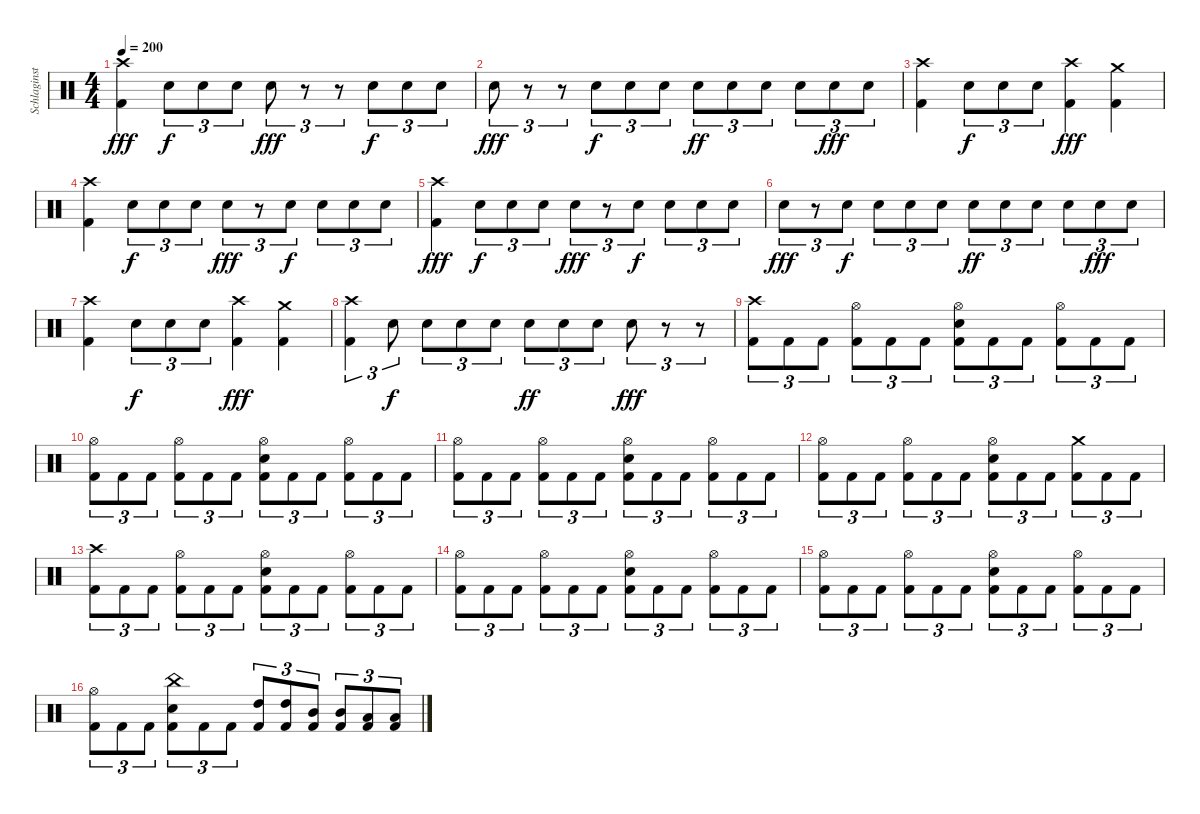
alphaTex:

\track ("Schlaginstrumente - Auswahl" "Schlaginst") {instrument percussion}
\staff {score}
\articulation defaults
\ts (4 4)
\tempo 200
\clef neutral
\ks c
("Crash high (hit)" "Kick (hit) 2").4{dy fff} "Snare (hit) 2".8{tu (3 2) dy f} "Snare (hit) 2".8{tu (3 2)} "Snare (hit) 2".8{tu (3 2)} "Snare (hit) 2".8{tu (3 2) dy fff} r.8{tu (3 2)} r.8{tu (3 2)} "Snare (hit) 2".8{tu (3 2) dy f} "Snare (hit) 2".8{tu (3 2)} "Snare (hit) 2".8{tu (3 2)} |
"Snare (hit) 2".8{tu (3 2) dy fff} r.8{tu (3 2)} r.8{tu (3 2)} "Snare (hit) 2".8{tu (3 2) dy f} "Snare (hit) 2".8{tu (3 2)} "Snare (hit) 2".8{tu (3 2)} "Snare (hit) 2".8{tu (3 2) dy ff} "Snare (hit) 2".8{tu (3 2)} "Snare (hit) 2".8{tu (3 2)} "Snare (hit) 2".8{tu (3 2)} "Snare (hit) 2".8{tu (3 2) dy fff} "Snare (hit) 2".8{tu (3 2)} |
("Crash high (hit)" "Kick (hit) 2").4 "Snare (hit) 2".8{tu (3 2) dy f} "Snare (hit) 2".8{tu (3 2)} "Snare (hit) 2".8{tu (3 2)} ("Crash high (hit)" "Kick (hit) 2").4{dy fff} ("Crash medium (hit)" "Kick (hit) 2").4 |
("Crash high (hit)" "Kick (hit) 2").4 "Snare (hit) 2".8{tu (3 2) dy f} "Snare (hit) 2".8{tu (3 2)} "Snare (hit) 2".8{tu (3 2)} "Snare (hit) 2".8{tu (3 2) dy fff} r.8{tu (3 2)} "Snare (hit) 2".8{tu (3 2) dy f} "Snare (hit) 2".8{tu (3 2)} "Snare (hit) 2".8{tu (3 2)} "Snare (hit) 2".8{tu (3 2)} |
("Crash high (hit)" "Kick (hit) 2").4{dy fff} "Snare (hit) 2".8{tu (3 2) dy f} "Snare (hit) 2".8{tu (3 2)} "Snare (hit) 2".8{tu (3 2)} "Snare (hit) 2".8{tu (3 2) dy fff} r.8{tu (3 2)} "Snare (hit) 2".8{tu (3 2) dy f} "Snare (hit) 2".8{tu (3 2)} "Snare (hit) 2".8{tu (3 2)} "Snare (hit) 2".8{tu (3 2)} |
"Snare (hit) 2".8{tu (3 2) dy fff} r.8{tu (3 2)} "Snare (hit) 2".8{tu (3 2) dy f} "Snare (hit) 2".8{tu (3 2)} "Snare (hit) 2".8{tu (3 2)} "Snare (hit) 2".8{tu (3 2)} "Snare (hit) 2".8{tu (3 2) dy ff} "Snare (hit) 2".8{tu (3 2)} "Snare (hit) 2".8{tu (3 2)} "Snare (hit) 2".8{tu (3 2)} "Snare (hit) 2".8{tu (3 2) dy fff} "Snare (hit) 2".8{tu (3 2)} |
("Crash high (hit)" "Kick (hit) 2").4 "Snare (hit) 2".8{tu (3 2) dy f} "Snare (hit) 2".8{tu (3 2)} "Snare (hit) 2".8{tu (3 2)} ("Crash high (hit)" "Kick (hit) 2").4{dy fff} ("Crash medium (hit)" "Kick (hit) 2").4 |
("Crash high (hit)" "Kick (hit) 2").4{tu (3 2)} "Snare (hit) 2".8{tu (3 2) dy f} "Snare (hit) 2".8{tu (3 2)} "Snare (hit) 2".8{tu (3 2)} "Snare (hit) 2".8{tu (3 2)} "Snare (hit) 2".8{tu (3 2) dy ff} "Snare (hit) 2".8{tu (3 2)} "Snare (hit) 2".8{tu (3 2)} "Snare (hit) 2".8{tu (3 2) dy fff} r.8{tu (3 2)} r.8{tu (3 2)} |
("Crash high (hit)" "Kick (hit) 2").8{tu (3 2)} "Kick (hit) 2".8{tu (3 2)} "Kick (hit) 2".8{tu (3 2)} ("Hi-Hat (open)" "Kick (hit) 2").8{tu (3 2)} "Kick (hit) 2".8{tu (3 2)} "Kick (hit) 2".8{tu (3 2)} ("Hi-Hat (open)" "Snare (hit) 2" "Kick (hit) 2").8{tu (3 2)} "Kick (hit) 2".8{tu (3 2)} "Kick (hit) 2".8{tu (3 2)} ("Hi-Hat (open)" "Kick (hit) 2").8{tu (3 2)} "Kick (hit) 2".8{tu (3 2)} "Kick (hit) 2".8{tu (3 2)} |
("Hi-Hat (open)" "Kick (hit) 2").8{tu (3 2)} "Kick (hit) 2".8{tu (3 2)} "Kick (hit) 2".8{tu (3 2)} ("Hi-Hat (open)" "Kick (hit) 2").8{tu (3 2)} "Kick (hit) 2".8{tu (3 2)} "Kick (hit) 2".8{tu (3 2)} ("Hi-Hat (open)" "Snare (hit) 2" "Kick (hit) 2").8{tu (3 2)} "Kick (hit) 2".8{tu (3 2)} "Kick (hit) 2".8{tu (3 2)} ("Hi-Hat (open)" "Kick (hit) 2").8{tu (3 2)} "Kick (hit) 2".8{tu (3 2)} "Kick (hit) 2".8{tu (3 2)} |
("Hi-Hat (open)" "Kick (hit) 2").8{tu (3 2)} "Kick (hit) 2".8{tu (3 2)} "Kick (hit) 2".8{tu (3 2)} ("Hi-Hat (open)" "Kick (hit) 2").8{tu (3 2)} "Kick (hit) 2".8{tu (3 2)} "Kick (hit) 2".8{tu (3 2)} ("Hi-Hat (open)" "Snare (hit) 2" "Kick (hit) 2").8{tu (3 2)} "Kick (hit) 2".8{tu (3 2)} "Kick (hit) 2".8{tu (3 2)} ("Hi-Hat (open)" "Kick (hit) 2").8{tu (3 2)} "Kick (hit) 2".8{tu (3 2)} "Kick (hit) 2".8{tu (3 2)} |
("Hi-Hat (open)" "Kick (hit) 2").8{tu (3 2)} "Kick (hit) 2".8{tu (3 2)} "Kick (hit) 2".8{tu (3 2)} ("Hi-Hat (open)" "Kick (hit) 2").8{tu (3 2)} "Kick (hit) 2".8{tu (3 2)} "Kick (hit) 2".8{tu (3 2)} ("Hi-Hat (open)" "Snare (hit) 2" "Kick (hit) 2").8{tu (3 2)} "Kick (hit) 2".8{tu (3 2)} "Kick (hit) 2".8{tu (3 2)} ("Crash medium (hit)" "Kick (hit) 2").8{tu (3 2)} "Kick (hit) 2".8{tu (3 2)} "Kick (hit) 2".8{tu (3 2)} |
("Crash high (hit)" "Kick (hit) 2").8{tu (3 2)} "Kick (hit) 2".8{tu (3 2)} "Kick (hit) 2".8{tu (3 2)} ("Hi-Hat (open)" "Kick (hit) 2").8{tu (3 2)} "Kick (hit) 2".8{tu (3 2)} "Kick (hit) 2".8{tu (3 2)} ("Hi-Hat (open)" "Snare (hit) 2" "Kick (hit) 2").8{tu (3 2)} "Kick (hit) 2".8{tu (3 2)} "Kick (hit) 2".8{tu (3 2)} ("Hi-Hat (open)" "Kick (hit) 2").8{tu (3 2)} "Kick (hit) 2".8{tu (3 2)} "Kick (hit) 2".8{tu (3 2)} |
("Hi-Hat (open)" "Kick (hit) 2").8{tu (3 2)} "Kick (hit) 2".8{tu (3 2)} "Kick (hit) 2".8{tu (3 2)} ("Hi-Hat (open)" "Kick (hit) 2").8{tu (3 2)} "Kick (hit) 2".8{tu (3 2)} "Kick (hit) 2".8{tu (3 2)} ("Hi-Hat (open)" "Snare (hit) 2" "Kick (hit) 2").8{tu (3 2)} "Kick (hit) 2".8{tu (3 2)} "Kick (hit) 2".8{tu (3 2)} ("Hi-Hat (open)" "Kick (hit) 2").8{tu (3 2)} "Kick (hit) 2".8{tu (3 2)} "Kick (hit) 2".8{tu (3 2)} |
("Hi-Hat (open)" "Kick (hit) 2").8{tu (3 2)} "Kick (hit) 2".8{tu (3 2)} "Kick (hit) 2".8{tu (3 2)} ("Hi-Hat (open)" "Kick (hit) 2").8{tu (3 2)} "Kick (hit) 2".8{tu (3 2)} "Kick (hit) 2".8{tu (3 2)} ("Hi-Hat (open)" "Snare (hit) 2" "Kick (hit) 2").8{tu (3 2)} "Kick (hit) 2".8{tu (3 2)} "Kick (hit) 2".8{tu (3 2)} ("Hi-Hat (open)" "Kick (hit) 2").8{tu (3 2)} "Kick (hit) 2".8{tu (3 2)} "Kick (hit) 2".8{tu (3 2)} |
("Hi-Hat (open)" "Kick (hit) 2").8{tu (3 2)} "Kick (hit) 2".8{tu (3 2)} "Kick (hit) 2".8{tu (3 2)} ("China (hit)" "Snare (hit) 2" "Kick (hit) 2").8{tu (3 2)} "Kick (hit) 2".8{tu (3 2)} "Kick (hit) 2".8{tu (3 2)} ("High Tom (hit)" "Kick (hit) 2").8{tu (3 2)} ("High Tom (hit)" "Kick (hit) 2").8{tu (3 2)} ("Mid Tom (hit)" "Kick (hit) 2").8{tu (3 2)} ("Mid Tom (hit)" "Kick (hit) 2").8{tu (3 2)} ("Low Tom (hit)" "Kick (hit) 2").8{tu (3 2)} ("Low Tom (hit)" "Kick (hit) 2").8{tu (3 2)}
